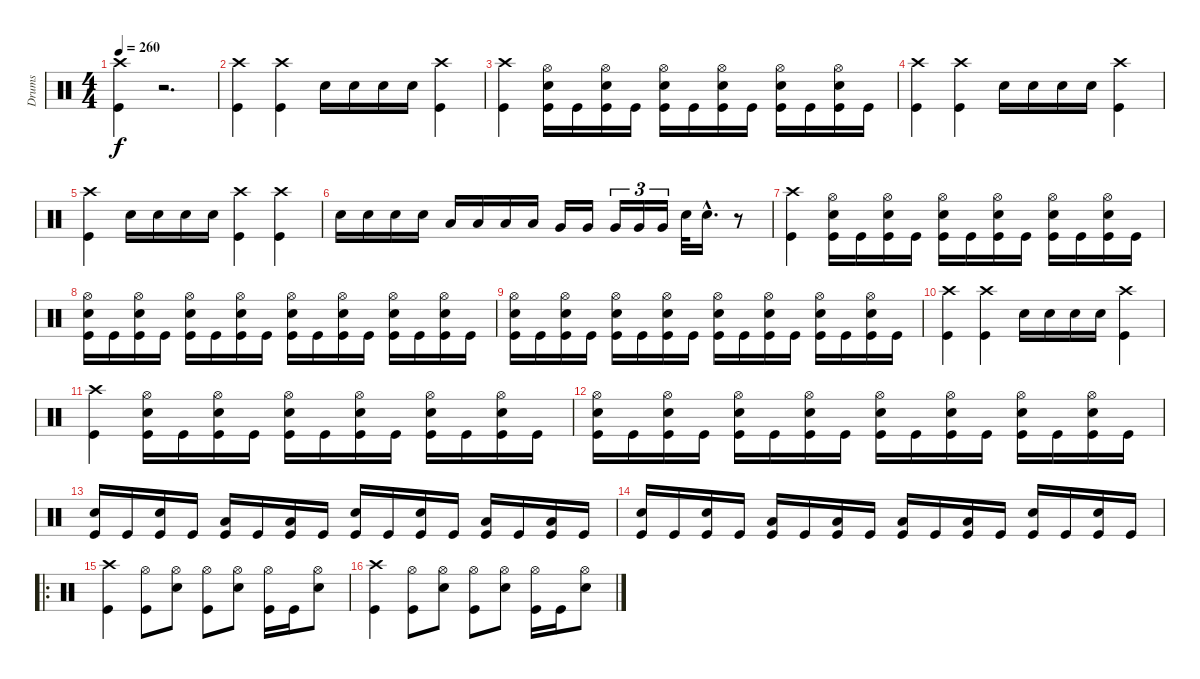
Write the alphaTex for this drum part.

\track ("Drums" "Drums") {instrument percussion}
\staff {score}
\articulation defaults
\ts (4 4)
\tempo 260
\clef neutral
\ks c
("Crash high (hit)" "Kick (hit)").4{dy f volume 16} r.2{d volume 0} |
("Crash high (hit)" "Kick (hit)").4{volume 16} ("Crash high (hit)" "Kick (hit)").4 "Electric Snare (hit)".16 "Electric Snare (hit)".16 "Electric Snare (hit)".16 "Electric Snare (hit)".16 ("Crash high (hit)" "Kick (hit)").4 |
("Crash high (hit)" "Kick (hit)").4 ("Hi-Hat (open)" "Electric Snare (hit)" "Kick (hit)").16 "Kick (hit)".16 ("Hi-Hat (open)" "Electric Snare (hit)" "Kick (hit)").16 "Kick (hit)".16 ("Hi-Hat (open)" "Electric Snare (hit)" "Kick (hit)").16 "Kick (hit)".16 ("Hi-Hat (open)" "Electric Snare (hit)" "Kick (hit)").16 "Kick (hit)".16 ("Hi-Hat (open)" "Electric Snare (hit)" "Kick (hit)").16 "Kick (hit)".16 ("Hi-Hat (open)" "Electric Snare (hit)" "Kick (hit)").16 "Kick (hit)".16 |
("Crash high (hit)" "Kick (hit)").4 ("Crash high (hit)" "Kick (hit)").4 "Electric Snare (hit)".16 "Electric Snare (hit)".16 "Electric Snare (hit)".16 "Electric Snare (hit)".16 ("Crash high (hit)" "Kick (hit)").4 |
("Crash high (hit)" "Kick (hit)").4 "Electric Snare (hit)".16 "Electric Snare (hit)".16 "Electric Snare (hit)".16 "Electric Snare (hit)".16 ("Crash high (hit)" "Kick (hit)").4 ("Crash high (hit)" "Kick (hit)").4 |
"Electric Snare (hit)".16 "Electric Snare (hit)".16 "Electric Snare (hit)".16 "Electric Snare (hit)".16 "Low Tom (hit)".16 "Low Tom (hit)".16 "Low Tom (hit)".16 "Low Tom (hit)".16 "Very Low Tom (hit)".16 "Very Low Tom (hit)".16 "Very Low Tom (hit)".16{tu (3 2)} "Very Low Tom (hit)".16{tu (3 2)} "Very Low Tom (hit)".16{tu (3 2)} "Electric Snare (hit)".32 "Electric Snare (hit)"{hac}.16{d} r.8 |
("Crash high (hit)" "Kick (hit)").4 ("Hi-Hat (open)" "Electric Snare (hit)" "Kick (hit)").16 "Kick (hit)".16 ("Hi-Hat (open)" "Electric Snare (hit)" "Kick (hit)").16 "Kick (hit)".16 ("Hi-Hat (open)" "Electric Snare (hit)" "Kick (hit)").16 "Kick (hit)".16 ("Hi-Hat (open)" "Electric Snare (hit)" "Kick (hit)").16 "Kick (hit)".16 ("Hi-Hat (open)" "Electric Snare (hit)" "Kick (hit)").16 "Kick (hit)".16 ("Hi-Hat (open)" "Electric Snare (hit)" "Kick (hit)").16 "Kick (hit)".16 |
("Hi-Hat (open)" "Electric Snare (hit)" "Kick (hit)").16 "Kick (hit)".16 ("Hi-Hat (open)" "Electric Snare (hit)" "Kick (hit)").16 "Kick (hit)".16 ("Hi-Hat (open)" "Electric Snare (hit)" "Kick (hit)").16 "Kick (hit)".16 ("Hi-Hat (open)" "Electric Snare (hit)" "Kick (hit)").16 "Kick (hit)".16 ("Hi-Hat (open)" "Electric Snare (hit)" "Kick (hit)").16 "Kick (hit)".16 ("Hi-Hat (open)" "Electric Snare (hit)" "Kick (hit)").16 "Kick (hit)".16 ("Hi-Hat (open)" "Electric Snare (hit)" "Kick (hit)").16 "Kick (hit)".16 ("Hi-Hat (open)" "Electric Snare (hit)" "Kick (hit)").16 "Kick (hit)".16 |
("Hi-Hat (open)" "Electric Snare (hit)" "Kick (hit)").16 "Kick (hit)".16 ("Hi-Hat (open)" "Electric Snare (hit)" "Kick (hit)").16 "Kick (hit)".16 ("Hi-Hat (open)" "Electric Snare (hit)" "Kick (hit)").16 "Kick (hit)".16 ("Hi-Hat (open)" "Electric Snare (hit)" "Kick (hit)").16 "Kick (hit)".16 ("Hi-Hat (open)" "Electric Snare (hit)" "Kick (hit)").16 "Kick (hit)".16 ("Hi-Hat (open)" "Electric Snare (hit)" "Kick (hit)").16 "Kick (hit)".16 ("Hi-Hat (open)" "Electric Snare (hit)" "Kick (hit)").16 "Kick (hit)".16 ("Hi-Hat (open)" "Electric Snare (hit)" "Kick (hit)").16 "Kick (hit)".16 |
("Crash high (hit)" "Kick (hit)").4 ("Crash high (hit)" "Kick (hit)").4 "Electric Snare (hit)".16 "Electric Snare (hit)".16 "Electric Snare (hit)".16 "Electric Snare (hit)".16 ("Crash high (hit)" "Kick (hit)").4 |
("Crash high (hit)" "Kick (hit)").4 ("Hi-Hat (open)" "Electric Snare (hit)" "Kick (hit)").16 "Kick (hit)".16 ("Hi-Hat (open)" "Electric Snare (hit)" "Kick (hit)").16 "Kick (hit)".16 ("Hi-Hat (open)" "Electric Snare (hit)" "Kick (hit)").16 "Kick (hit)".16 ("Hi-Hat (open)" "Electric Snare (hit)" "Kick (hit)").16 "Kick (hit)".16 ("Hi-Hat (open)" "Electric Snare (hit)" "Kick (hit)").16 "Kick (hit)".16 ("Hi-Hat (open)" "Electric Snare (hit)" "Kick (hit)").16 "Kick (hit)".16 |
("Hi-Hat (open)" "Electric Snare (hit)" "Kick (hit)").16 "Kick (hit)".16 ("Hi-Hat (open)" "Electric Snare (hit)" "Kick (hit)").16 "Kick (hit)".16 ("Hi-Hat (open)" "Electric Snare (hit)" "Kick (hit)").16 "Kick (hit)".16 ("Hi-Hat (open)" "Electric Snare (hit)" "Kick (hit)").16 "Kick (hit)".16 ("Hi-Hat (open)" "Electric Snare (hit)" "Kick (hit)").16 "Kick (hit)".16 ("Hi-Hat (open)" "Electric Snare (hit)" "Kick (hit)").16 "Kick (hit)".16 ("Hi-Hat (open)" "Electric Snare (hit)" "Kick (hit)").16 "Kick (hit)".16 ("Hi-Hat (open)" "Electric Snare (hit)" "Kick (hit)").16 "Kick (hit)".16 |
("Electric Snare (hit)" "Kick (hit)").16 "Kick (hit)".16 ("Electric Snare (hit)" "Kick (hit)").16 "Kick (hit)".16 ("Low Tom (hit)" "Kick (hit)").16 "Kick (hit)".16 ("Low Tom (hit)" "Kick (hit)").16 "Kick (hit)".16 ("Electric Snare (hit)" "Kick (hit)").16 "Kick (hit)".16 ("Electric Snare (hit)" "Kick (hit)").16 "Kick (hit)".16 ("Low Tom (hit)" "Kick (hit)").16 "Kick (hit)".16 ("Low Tom (hit)" "Kick (hit)").16 "Kick (hit)".16 |
("Electric Snare (hit)" "Kick (hit)").16 "Kick (hit)".16 ("Electric Snare (hit)" "Kick (hit)").16 "Kick (hit)".16 ("Low Tom (hit)" "Kick (hit)").16 "Kick (hit)".16 ("Low Tom (hit)" "Kick (hit)").16 "Kick (hit)".16 ("Low Tom (hit)" "Kick (hit)").16 "Kick (hit)".16 ("Low Tom (hit)" "Kick (hit)").16 "Kick (hit)".16 ("Electric Snare (hit)" "Kick (hit)").16 "Kick (hit)".16 ("Electric Snare (hit)" "Kick (hit)").16 "Kick (hit)".16 |
\ro
("Crash high (hit)" "Kick (hit)").4 ("Hi-Hat (open)" "Kick (hit)").8 ("Hi-Hat (open)" "Electric Snare (hit)").8 ("Hi-Hat (open)" "Kick (hit)").8 ("Hi-Hat (open)" "Electric Snare (hit)").8 ("Hi-Hat (open)" "Kick (hit)").16 "Kick (hit)".16 ("Hi-Hat (open)" "Electric Snare (hit)").8 |
("Crash high (hit)" "Kick (hit)").4 ("Hi-Hat (open)" "Kick (hit)").8 ("Hi-Hat (open)" "Electric Snare (hit)").8 ("Hi-Hat (open)" "Kick (hit)").8 ("Hi-Hat (open)" "Electric Snare (hit)").8 ("Hi-Hat (open)" "Kick (hit)").16 "Kick (hit)".16 ("Hi-Hat (open)" "Electric Snare (hit)").8
